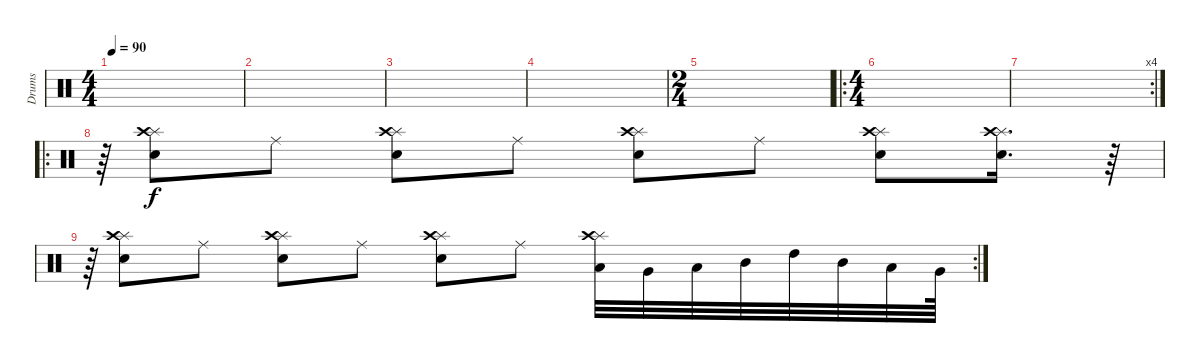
\track ("Drums" "Drums") {instrument percussion}
\staff
\articulation defaults
\ts (4 4)
\tempo 90
\clef neutral
\ks c
|
|
|
|
\ts (2 4)
|
\ro
\ts (4 4)
|
\rc 4
|
\ro
r.64 ("Electric Snare (hit)" "Splash (hit)" "Crash high (hit)").8 "Ride (middle)".8 ("Electric Snare (hit)" "Splash (hit)" "Crash high (hit)").8 "Ride (middle)".8 ("Electric Snare (hit)" "Splash (hit)" "Crash high (hit)").8 "Ride (middle)".8 ("Electric Snare (hit)" "Splash (hit)" "Crash high (hit)").8 ("Electric Snare (hit)" "Splash (hit)" "Crash high (hit)").16{d} r.64 |
\rc 2
r.64 ("Electric Snare (hit)" "Splash (hit)" "Crash high (hit)").8 "Ride (middle)".8 ("Electric Snare (hit)" "Splash (hit)" "Crash high (hit)").8 "Ride (middle)".8 ("Electric Snare (hit)" "Splash (hit)" "Crash high (hit)").8 "Ride (middle)".8 ("Low Floor Tom (hit)" "Splash (hit)" "Crash high (hit)").32 "Very Low Tom (hit)".32 "Low Tom (hit)".32 "Mid Tom (hit)".32 "High Tom (hit)".32 "Mid Tom (hit)".32 "Low Tom (hit)".32 "Very Low Tom (hit)".64
